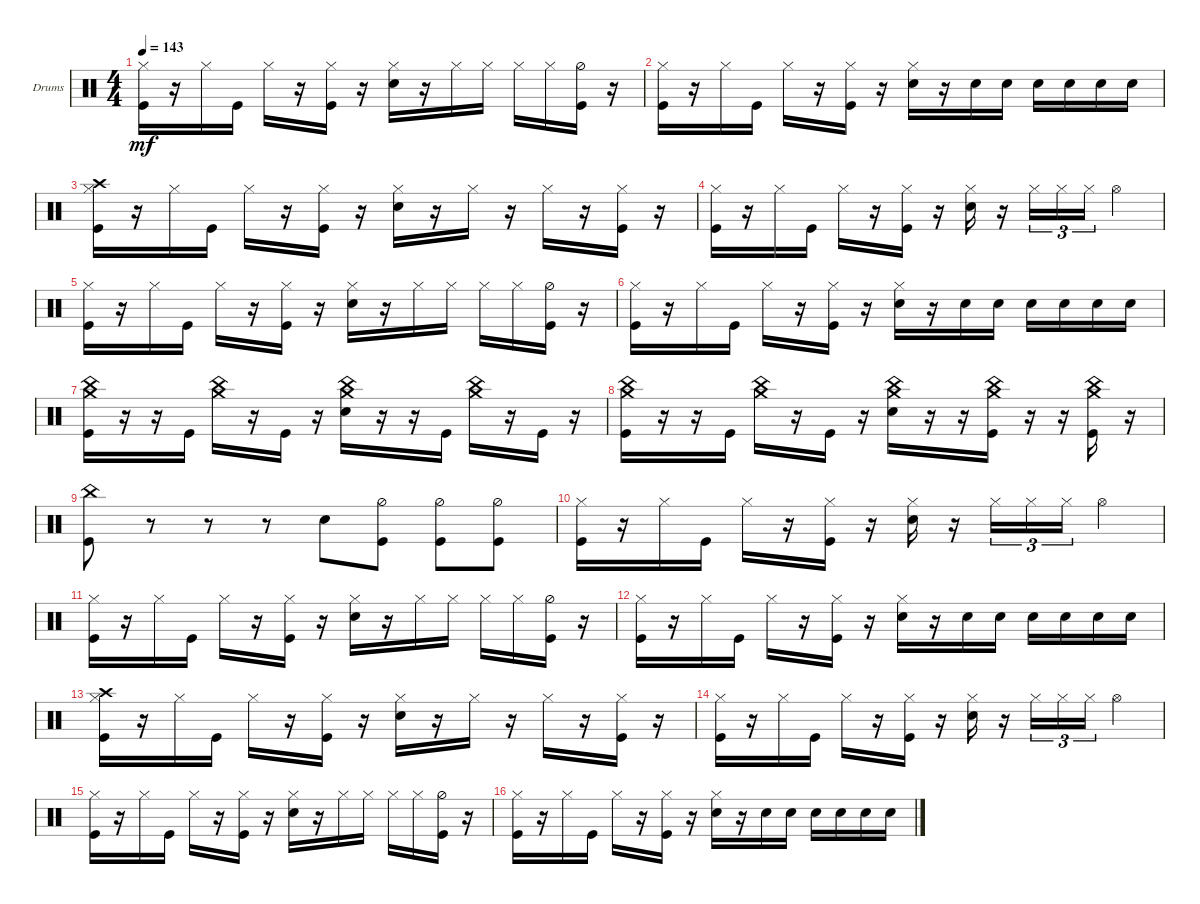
\bracketExtendMode groupsimilarinstruments
\firstSystemTrackNameOrientation horizontal
\otherSystemsTrackNameOrientation horizontal
\track ("death drumz" "Drums") {instrument percussion}
\staff {score}
\articulation defaults
\ts (4 4)
\tempo 143
\clef neutral
\ks c
("Kick (hit)" "Hi-Hat (closed)").16{dy mf} r.16 "Hi-Hat (closed)".16 "Kick (hit)".16 "Hi-Hat (closed)".16 r.16 ("Kick (hit)" "Hi-Hat (closed)").16 r.16 ("Snare (hit) 2" "Hi-Hat (closed)").16 r.16 "Hi-Hat (closed)".16 "Hi-Hat (closed)".16 "Hi-Hat (closed)".16 "Hi-Hat (closed)".16 ("Kick (hit)" "Hi-Hat (half)").16 r.16 |
("Kick (hit)" "Hi-Hat (closed)").16 r.16 "Hi-Hat (closed)".16 "Kick (hit)".16 "Hi-Hat (closed)".16 r.16 ("Kick (hit)" "Hi-Hat (closed)").16 r.16 ("Snare (hit) 2" "Hi-Hat (closed)").16 r.16 "Snare (hit) 2".16 "Snare (hit) 2".16 "Snare (hit) 2".16 "Snare (hit) 2".16 "Snare (hit) 2".16 "Snare (hit) 2".16 |
("Kick (hit)" "Hi-Hat (closed)" "Crash high (hit)").16 r.16 "Hi-Hat (closed)".16 "Kick (hit)".16 "Hi-Hat (closed)".16 r.16 ("Kick (hit)" "Hi-Hat (closed)").16 r.16 ("Snare (hit) 2" "Hi-Hat (closed)").16 r.16 "Hi-Hat (closed)".16 r.16 "Hi-Hat (closed)".16 r.16 ("Kick (hit)" "Hi-Hat (closed)").16 r.16 |
("Kick (hit)" "Hi-Hat (closed)").16 r.16 "Hi-Hat (closed)".16 "Kick (hit)".16 "Hi-Hat (closed)".16 r.16 ("Kick (hit)" "Hi-Hat (closed)").16 r.16 ("Snare (hit) 2" "Hi-Hat (closed)").16 r.16 "Hi-Hat (closed)".16{tu (3 2)} "Hi-Hat (closed)".16{tu (3 2)} "Hi-Hat (closed)".16{tu (3 2)} "Hi-Hat (open)".4 |
("Kick (hit)" "Hi-Hat (closed)").16 r.16 "Hi-Hat (closed)".16 "Kick (hit)".16 "Hi-Hat (closed)".16 r.16 ("Kick (hit)" "Hi-Hat (closed)").16 r.16 ("Snare (hit) 2" "Hi-Hat (closed)").16 r.16 "Hi-Hat (closed)".16 "Hi-Hat (closed)".16 "Hi-Hat (closed)".16 "Hi-Hat (closed)".16 ("Kick (hit)" "Hi-Hat (half)").16 r.16 |
("Kick (hit)" "Hi-Hat (closed)").16 r.16 "Hi-Hat (closed)".16 "Kick (hit)".16 "Hi-Hat (closed)".16 r.16 ("Kick (hit)" "Hi-Hat (closed)").16 r.16 ("Snare (hit) 2" "Hi-Hat (closed)").16 r.16 "Snare (hit) 2".16 "Snare (hit) 2".16 "Snare (hit) 2".16 "Snare (hit) 2".16 "Snare (hit) 2".16 "Snare (hit) 2".16 |
("Kick (hit)" "China (hit)" "Crash medium (hit)").16 r.16 r.16 "Kick (hit)".16 ("China (hit)" "Crash medium (hit)").16 r.16 "Kick (hit)".16 r.16 ("Snare (hit) 2" "China (hit)" "Crash medium (hit)").16 r.16 r.16 "Kick (hit)".16 ("China (hit)" "Crash medium (hit)").16 r.16 "Kick (hit)".16 r.16 |
("Kick (hit)" "China (hit)" "Crash medium (hit)").16 r.16 r.16 "Kick (hit)".16 ("China (hit)" "Crash medium (hit)").16 r.16 "Kick (hit)".16 r.16 ("Snare (hit) 2" "China (hit)" "Crash medium (hit)").16 r.16 r.16 ("Kick (hit)" "China (hit)" "Crash medium (hit)").16 r.16 r.16 ("Kick (hit)" "China (hit)" "Crash medium (hit)").16 r.16 |
("Kick (hit)" "China (hit)").8 r.8 r.8 r.8 "Snare (hit) 2".8 ("Kick (hit)" "Hi-Hat (half)").8 ("Kick (hit)" "Hi-Hat (half)").8 ("Kick (hit)" "Hi-Hat (half)").8 |
("Kick (hit)" "Hi-Hat (closed)").16 r.16 "Hi-Hat (closed)".16 "Kick (hit)".16 "Hi-Hat (closed)".16 r.16 ("Kick (hit)" "Hi-Hat (closed)").16 r.16 ("Snare (hit) 2" "Hi-Hat (closed)").16 r.16 "Hi-Hat (closed)".16{tu (3 2)} "Hi-Hat (closed)".16{tu (3 2)} "Hi-Hat (closed)".16{tu (3 2)} "Hi-Hat (open)".4 |
("Kick (hit)" "Hi-Hat (closed)").16 r.16 "Hi-Hat (closed)".16 "Kick (hit)".16 "Hi-Hat (closed)".16 r.16 ("Kick (hit)" "Hi-Hat (closed)").16 r.16 ("Snare (hit) 2" "Hi-Hat (closed)").16 r.16 "Hi-Hat (closed)".16 "Hi-Hat (closed)".16 "Hi-Hat (closed)".16 "Hi-Hat (closed)".16 ("Kick (hit)" "Hi-Hat (half)").16 r.16 |
("Kick (hit)" "Hi-Hat (closed)").16 r.16 "Hi-Hat (closed)".16 "Kick (hit)".16 "Hi-Hat (closed)".16 r.16 ("Kick (hit)" "Hi-Hat (closed)").16 r.16 ("Snare (hit) 2" "Hi-Hat (closed)").16 r.16 "Snare (hit) 2".16 "Snare (hit) 2".16 "Snare (hit) 2".16 "Snare (hit) 2".16 "Snare (hit) 2".16 "Snare (hit) 2".16 |
("Kick (hit)" "Hi-Hat (closed)" "Crash high (hit)").16 r.16 "Hi-Hat (closed)".16 "Kick (hit)".16 "Hi-Hat (closed)".16 r.16 ("Kick (hit)" "Hi-Hat (closed)").16 r.16 ("Snare (hit) 2" "Hi-Hat (closed)").16 r.16 "Hi-Hat (closed)".16 r.16 "Hi-Hat (closed)".16 r.16 ("Kick (hit)" "Hi-Hat (closed)").16 r.16 |
("Kick (hit)" "Hi-Hat (closed)").16 r.16 "Hi-Hat (closed)".16 "Kick (hit)".16 "Hi-Hat (closed)".16 r.16 ("Kick (hit)" "Hi-Hat (closed)").16 r.16 ("Snare (hit) 2" "Hi-Hat (closed)").16 r.16 "Hi-Hat (closed)".16{tu (3 2)} "Hi-Hat (closed)".16{tu (3 2)} "Hi-Hat (closed)".16{tu (3 2)} "Hi-Hat (open)".4 |
("Kick (hit)" "Hi-Hat (closed)").16 r.16 "Hi-Hat (closed)".16 "Kick (hit)".16 "Hi-Hat (closed)".16 r.16 ("Kick (hit)" "Hi-Hat (closed)").16 r.16 ("Snare (hit) 2" "Hi-Hat (closed)").16 r.16 "Hi-Hat (closed)".16 "Hi-Hat (closed)".16 "Hi-Hat (closed)".16 "Hi-Hat (closed)".16 ("Kick (hit)" "Hi-Hat (half)").16 r.16 |
("Kick (hit)" "Hi-Hat (closed)").16 r.16 "Hi-Hat (closed)".16 "Kick (hit)".16 "Hi-Hat (closed)".16 r.16 ("Kick (hit)" "Hi-Hat (closed)").16 r.16 ("Snare (hit) 2" "Hi-Hat (closed)").16 r.16 "Snare (hit) 2".16 "Snare (hit) 2".16 "Snare (hit) 2".16 "Snare (hit) 2".16 "Snare (hit) 2".16 "Snare (hit) 2".16
